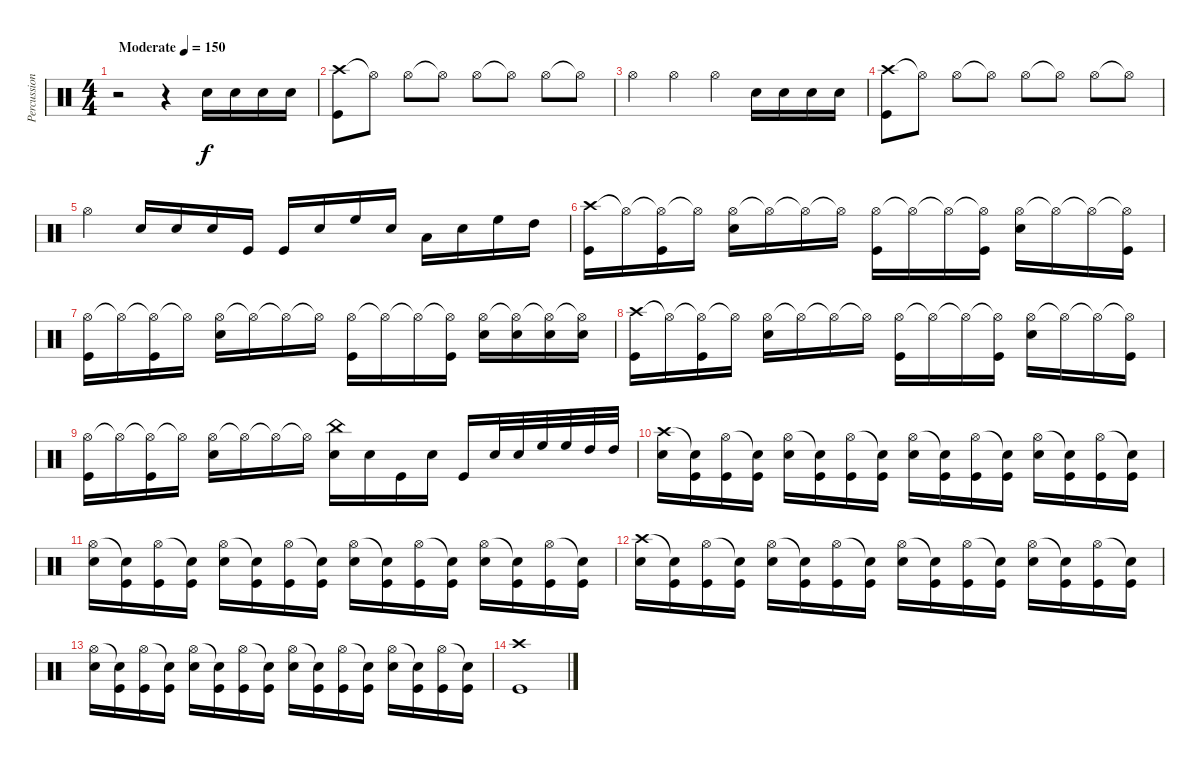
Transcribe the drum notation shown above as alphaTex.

\track ("Percussions" "Percussion") {instrument percussion}
\staff {score}
\articulation defaults
\ts (4 4)
\tempo (150 "Moderate")
\clef neutral
\ks c
r.2{dy f} r.4 "Electric Snare (hit)".16 "Electric Snare (hit)".16 "Electric Snare (hit)".16 "Electric Snare (hit)".16 |
("Crash high (hit)" "Kick (hit)").8 "Hi-Hat (open)"{t}.8 "Hi-Hat (open)".8 "Hi-Hat (open)"{t}.8 "Hi-Hat (open)".8 "Hi-Hat (open)"{t}.8 "Hi-Hat (open)".8 "Hi-Hat (open)"{t}.8 |
"Hi-Hat (open)".4 "Hi-Hat (open)".4 "Hi-Hat (open)".4 "Electric Snare (hit)".16 "Electric Snare (hit)".16 "Electric Snare (hit)".16 "Electric Snare (hit)".16 |
("Crash high (hit)" "Kick (hit)").8 "Hi-Hat (open)"{t}.8 "Hi-Hat (open)".8 "Hi-Hat (open)"{t}.8 "Hi-Hat (open)".8 "Hi-Hat (open)"{t}.8 "Hi-Hat (open)".8 "Hi-Hat (open)"{t}.8 |
"Hi-Hat (open)".4 "Electric Snare (hit)".16 "Electric Snare (hit)".16 "Electric Snare (hit)".16 "Kick (hit)".16 "Kick (hit)".16 "Electric Snare (hit)".16 "High Floor Tom (hit)".16 "Electric Snare (hit)".16 "Low Tom (hit)".16 "Electric Snare (hit)".16 "High Floor Tom (hit)".16 "High Tom (hit)".16 |
("Crash high (hit)" "Kick (hit)").16 "Hi-Hat (open)"{t}.16 ("Hi-Hat (open)"{t} "Kick (hit)").16 "Hi-Hat (open)"{t}.16 ("Hi-Hat (open)" "Electric Snare (hit)").16 "Hi-Hat (open)"{t}.16 "Hi-Hat (open)"{t}.16 "Hi-Hat (open)"{t}.16 ("Hi-Hat (open)" "Kick (hit)").16 "Hi-Hat (open)"{t}.16 "Hi-Hat (open)"{t}.16 ("Hi-Hat (open)"{t} "Kick (hit)").16 ("Hi-Hat (open)" "Electric Snare (hit)").16 "Hi-Hat (open)"{t}.16 "Hi-Hat (open)"{t}.16 ("Hi-Hat (open)"{t} "Kick (hit)").16 |
("Hi-Hat (open)" "Kick (hit)").16 "Hi-Hat (open)"{t}.16 ("Hi-Hat (open)"{t} "Kick (hit)").16 "Hi-Hat (open)"{t}.16 ("Hi-Hat (open)" "Electric Snare (hit)").16 "Hi-Hat (open)"{t}.16 "Hi-Hat (open)"{t}.16 "Hi-Hat (open)"{t}.16 ("Hi-Hat (open)" "Kick (hit)").16 "Hi-Hat (open)"{t}.16 "Hi-Hat (open)"{t}.16 ("Hi-Hat (open)"{t} "Kick (hit)").16 ("Hi-Hat (open)" "Electric Snare (hit)").16 ("Hi-Hat (open)"{t} "Electric Snare (hit)").16 ("Hi-Hat (open)"{t} "Electric Snare (hit)").16 ("Hi-Hat (open)"{t} "Electric Snare (hit)").16 |
("Crash high (hit)" "Kick (hit)").16 "Hi-Hat (open)"{t}.16 ("Hi-Hat (open)"{t} "Kick (hit)").16 "Hi-Hat (open)"{t}.16 ("Hi-Hat (open)" "Electric Snare (hit)").16 "Hi-Hat (open)"{t}.16 "Hi-Hat (open)"{t}.16 "Hi-Hat (open)"{t}.16 ("Hi-Hat (open)" "Kick (hit)").16 "Hi-Hat (open)"{t}.16 "Hi-Hat (open)"{t}.16 ("Hi-Hat (open)"{t} "Kick (hit)").16 ("Hi-Hat (open)" "Electric Snare (hit)").16 "Hi-Hat (open)"{t}.16 "Hi-Hat (open)"{t}.16 ("Hi-Hat (open)"{t} "Kick (hit)").16 |
("Hi-Hat (open)" "Kick (hit)").16 "Hi-Hat (open)"{t}.16 ("Hi-Hat (open)"{t} "Kick (hit)").16 "Hi-Hat (open)"{t}.16 ("Hi-Hat (open)" "Electric Snare (hit)").16 "Hi-Hat (open)"{t}.16 "Hi-Hat (open)"{t}.16 "Hi-Hat (open)"{t}.16 ("China (hit)" "Electric Snare (hit)").16 "Electric Snare (hit)".16 "Kick (hit)".16 "Electric Snare (hit)".16 "Kick (hit)".16 "Electric Snare (hit)".32 "Electric Snare (hit)".32 "High Floor Tom (hit)".32 "High Floor Tom (hit)".32 "High Tom (hit)".32 "High Tom (hit)".32 |
("Crash high (hit)" "Electric Snare (hit)").16 ("Snare (hit)"{t} "Kick (hit)").16 ("Hi-Hat (open)" "Kick (hit)").16 ("Snare (hit)"{t} "Kick (hit)").16 ("Hi-Hat (open)" "Electric Snare (hit)").16 ("Snare (hit)"{t} "Kick (hit)").16 ("Hi-Hat (open)" "Kick (hit)").16 ("Snare (hit)"{t} "Kick (hit)").16 ("Hi-Hat (open)" "Electric Snare (hit)").16 ("Snare (hit)"{t} "Kick (hit)").16 ("Hi-Hat (open)" "Kick (hit)").16 ("Snare (hit)"{t} "Kick (hit)").16 ("Hi-Hat (open)" "Electric Snare (hit)").16 ("Snare (hit)"{t} "Kick (hit)").16 ("Hi-Hat (open)" "Kick (hit)").16 ("Snare (hit)"{t} "Kick (hit)").16 |
("Hi-Hat (open)" "Electric Snare (hit)").16 ("Snare (hit)"{t} "Kick (hit)").16 ("Hi-Hat (open)" "Kick (hit)").16 ("Snare (hit)"{t} "Kick (hit)").16 ("Hi-Hat (open)" "Electric Snare (hit)").16 ("Snare (hit)"{t} "Kick (hit)").16 ("Hi-Hat (open)" "Kick (hit)").16 ("Snare (hit)"{t} "Kick (hit)").16 ("Hi-Hat (open)" "Electric Snare (hit)").16 ("Snare (hit)"{t} "Kick (hit)").16 ("Hi-Hat (open)" "Kick (hit)").16 ("Snare (hit)"{t} "Kick (hit)").16 ("Hi-Hat (open)" "Electric Snare (hit)").16 ("Snare (hit)"{t} "Kick (hit)").16 ("Hi-Hat (open)" "Kick (hit)").16 ("Snare (hit)"{t} "Kick (hit)").16 |
("Crash high (hit)" "Electric Snare (hit)").16 ("Snare (hit)"{t} "Kick (hit)").16 ("Hi-Hat (open)" "Kick (hit)").16 ("Snare (hit)"{t} "Kick (hit)").16 ("Hi-Hat (open)" "Electric Snare (hit)").16 ("Snare (hit)"{t} "Kick (hit)").16 ("Hi-Hat (open)" "Kick (hit)").16 ("Snare (hit)"{t} "Kick (hit)").16 ("Hi-Hat (open)" "Electric Snare (hit)").16 ("Snare (hit)"{t} "Kick (hit)").16 ("Hi-Hat (open)" "Kick (hit)").16 ("Snare (hit)"{t} "Kick (hit)").16 ("Hi-Hat (open)" "Electric Snare (hit)").16 ("Snare (hit)"{t} "Kick (hit)").16 ("Hi-Hat (open)" "Kick (hit)").16 ("Snare (hit)"{t} "Kick (hit)").16 |
("Hi-Hat (open)" "Electric Snare (hit)").16 ("Snare (hit)"{t} "Kick (hit)").16 ("Hi-Hat (open)" "Kick (hit)").16 ("Snare (hit)"{t} "Kick (hit)").16 ("Hi-Hat (open)" "Electric Snare (hit)").16 ("Snare (hit)"{t} "Kick (hit)").16 ("Hi-Hat (open)" "Kick (hit)").16 ("Snare (hit)"{t} "Kick (hit)").16 ("Hi-Hat (open)" "Electric Snare (hit)").16 ("Snare (hit)"{t} "Kick (hit)").16 ("Hi-Hat (open)" "Kick (hit)").16 ("Snare (hit)"{t} "Kick (hit)").16 ("Hi-Hat (open)" "Electric Snare (hit)").16 ("Snare (hit)"{t} "Kick (hit)").16 ("Hi-Hat (open)" "Kick (hit)").16 ("Snare (hit)"{t} "Kick (hit)").16 |
("Crash high (hit)" "Kick (hit)").1
